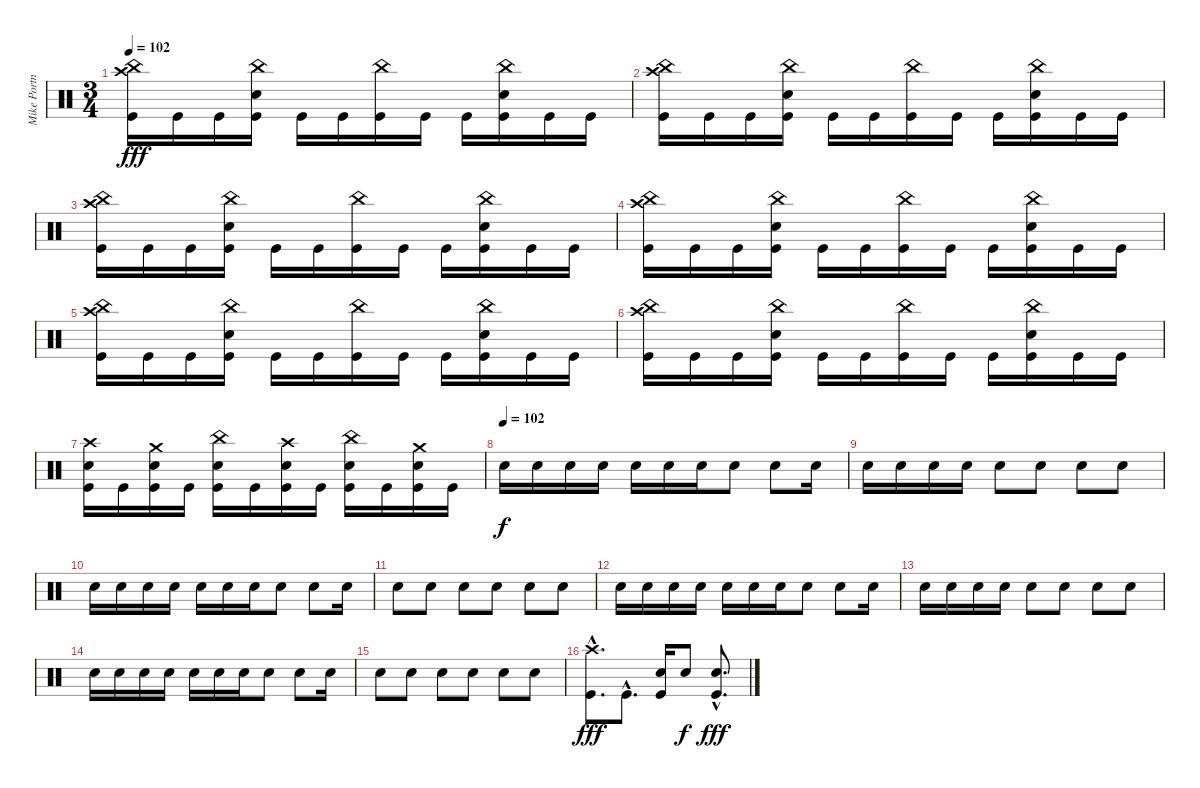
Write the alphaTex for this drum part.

\track ("Mike Portnoy" "Mike Portn") {instrument percussion}
\staff {score}
\articulation defaults
\ts (3 4)
\tempo 102
\clef neutral
\ks c
("Crash high (hit)" "China (hit)" "Kick (hit)").16{dy fff} "Kick (hit)".16 "Kick (hit)".16 ("China (hit)" "Electric Snare (hit)" "Kick (hit)").16 "Kick (hit)".16 "Kick (hit)".16 ("China (hit)" "Kick (hit)").16 "Kick (hit)".16 "Kick (hit)".16 ("China (hit)" "Electric Snare (hit)" "Kick (hit)").16 "Kick (hit)".16 "Kick (hit)".16 |
("Crash high (hit)" "China (hit)" "Kick (hit)").16 "Kick (hit)".16 "Kick (hit)".16 ("China (hit)" "Electric Snare (hit)" "Kick (hit)").16 "Kick (hit)".16 "Kick (hit)".16 ("China (hit)" "Kick (hit)").16 "Kick (hit)".16 "Kick (hit)".16 ("China (hit)" "Electric Snare (hit)" "Kick (hit)").16 "Kick (hit)".16 "Kick (hit)".16 |
("Crash high (hit)" "China (hit)" "Kick (hit)").16 "Kick (hit)".16 "Kick (hit)".16 ("China (hit)" "Electric Snare (hit)" "Kick (hit)").16 "Kick (hit)".16 "Kick (hit)".16 ("China (hit)" "Kick (hit)").16 "Kick (hit)".16 "Kick (hit)".16 ("China (hit)" "Electric Snare (hit)" "Kick (hit)").16 "Kick (hit)".16 "Kick (hit)".16 |
("Crash high (hit)" "China (hit)" "Kick (hit)").16 "Kick (hit)".16 "Kick (hit)".16 ("China (hit)" "Electric Snare (hit)" "Kick (hit)").16 "Kick (hit)".16 "Kick (hit)".16 ("China (hit)" "Kick (hit)").16 "Kick (hit)".16 "Kick (hit)".16 ("China (hit)" "Electric Snare (hit)" "Kick (hit)").16 "Kick (hit)".16 "Kick (hit)".16 |
("Crash high (hit)" "China (hit)" "Kick (hit)").16 "Kick (hit)".16 "Kick (hit)".16 ("China (hit)" "Electric Snare (hit)" "Kick (hit)").16 "Kick (hit)".16 "Kick (hit)".16 ("China (hit)" "Kick (hit)").16 "Kick (hit)".16 "Kick (hit)".16 ("China (hit)" "Electric Snare (hit)" "Kick (hit)").16 "Kick (hit)".16 "Kick (hit)".16 |
("Crash high (hit)" "China (hit)" "Kick (hit)").16 "Kick (hit)".16 "Kick (hit)".16 ("China (hit)" "Electric Snare (hit)" "Kick (hit)").16 "Kick (hit)".16 "Kick (hit)".16 ("China (hit)" "Kick (hit)").16 "Kick (hit)".16 "Kick (hit)".16 ("China (hit)" "Electric Snare (hit)" "Kick (hit)").16 "Kick (hit)".16 "Kick (hit)".16 |
("Crash high (hit)" "Electric Snare (hit)" "Kick (hit)").16 "Kick (hit)".16 ("Crash medium (hit)" "Electric Snare (hit)" "Kick (hit)").16 "Kick (hit)".16 ("China (hit)" "Electric Snare (hit)" "Kick (hit)").16 "Kick (hit)".16 ("Crash high (hit)" "Electric Snare (hit)" "Kick (hit)").16 "Kick (hit)".16 ("China (hit)" "Electric Snare (hit)" "Kick (hit)").16 "Kick (hit)".16 ("Crash medium (hit)" "Electric Snare (hit)" "Kick (hit)").16 "Kick (hit)".16 |
\tempo (102)
"Electric Snare (hit)".16{dy f} "Electric Snare (hit)".16 "Electric Snare (hit)".16 "Electric Snare (hit)".16 "Electric Snare (hit)".16 "Electric Snare (hit)".16 "Electric Snare (hit)".16 "Electric Snare (hit)".8 "Electric Snare (hit)".8 "Electric Snare (hit)".16 |
"Electric Snare (hit)".16 "Electric Snare (hit)".16 "Electric Snare (hit)".16 "Electric Snare (hit)".16 "Electric Snare (hit)".8 "Electric Snare (hit)".8 "Electric Snare (hit)".8 "Electric Snare (hit)".8 |
"Electric Snare (hit)".16 "Electric Snare (hit)".16 "Electric Snare (hit)".16 "Electric Snare (hit)".16 "Electric Snare (hit)".16 "Electric Snare (hit)".16 "Electric Snare (hit)".16 "Electric Snare (hit)".8 "Electric Snare (hit)".8 "Electric Snare (hit)".16 |
"Electric Snare (hit)".8 "Electric Snare (hit)".8 "Electric Snare (hit)".8 "Electric Snare (hit)".8 "Electric Snare (hit)".8 "Electric Snare (hit)".8 |
"Electric Snare (hit)".16 "Electric Snare (hit)".16 "Electric Snare (hit)".16 "Electric Snare (hit)".16 "Electric Snare (hit)".16 "Electric Snare (hit)".16 "Electric Snare (hit)".16 "Electric Snare (hit)".8 "Electric Snare (hit)".8 "Electric Snare (hit)".16 |
"Electric Snare (hit)".16 "Electric Snare (hit)".16 "Electric Snare (hit)".16 "Electric Snare (hit)".16 "Electric Snare (hit)".8 "Electric Snare (hit)".8 "Electric Snare (hit)".8 "Electric Snare (hit)".8 |
"Electric Snare (hit)".16 "Electric Snare (hit)".16 "Electric Snare (hit)".16 "Electric Snare (hit)".16 "Electric Snare (hit)".16 "Electric Snare (hit)".16 "Electric Snare (hit)".16 "Electric Snare (hit)".8 "Electric Snare (hit)".8 "Electric Snare (hit)".16 |
"Electric Snare (hit)".8 "Electric Snare (hit)".8 "Electric Snare (hit)".8 "Electric Snare (hit)".8 "Electric Snare (hit)".8 "Electric Snare (hit)".8 |
("Crash high (hit)"{hac} "Kick (hit)"{hac}).8{d dy fff} "Kick (hit)"{hac}.8{d} ("Electric Snare (hit)" "Kick (hit)").16 "Electric Snare (hit)".8{dy f} ("Electric Snare (hit)"{hac} "Kick (hit)"{hac}).8{d dy fff}
